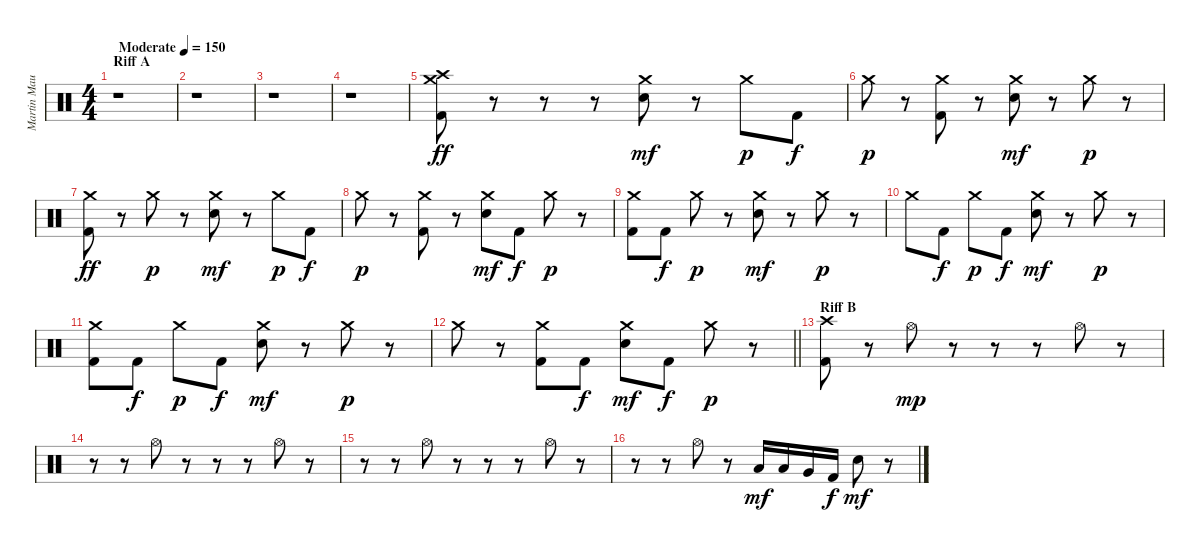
\track ("Martin Maurais" "Martin Mau") {instrument percussion}
\staff {score}
\articulation defaults
\ts (4 4)
\section ("" "Riff A")
\tempo (150 "Moderate")
\clef neutral
\ks c
r.1{dy ff} |
r.1 |
r.1 |
r.1 |
("Crash medium (hit)" "Crash high (hit)" "Kick (hit) 2").8 r.8 r.8 r.8 ("Crash medium (hit)" "Electric Snare (hit)").8{dy mf} r.8 "Crash medium (hit)".8{dy p} "Kick (hit) 2".8{dy f} |
"Crash medium (hit)".8{dy p} r.8 ("Crash medium (hit)" "Kick (hit) 2").8 r.8 ("Crash medium (hit)" "Electric Snare (hit)").8{dy mf} r.8 "Crash medium (hit)".8{dy p} r.8 |
("Crash medium (hit)" "Kick (hit) 2").8{dy ff} r.8 "Crash medium (hit)".8{dy p} r.8 ("Crash medium (hit)" "Electric Snare (hit)").8{dy mf} r.8 "Crash medium (hit)".8{dy p} "Kick (hit) 2".8{dy f} |
"Crash medium (hit)".8{dy p} r.8 ("Crash medium (hit)" "Kick (hit) 2").8 r.8 ("Crash medium (hit)" "Electric Snare (hit)").8{dy mf} "Kick (hit) 2".8{dy f} "Crash medium (hit)".8{dy p} r.8 |
("Crash medium (hit)" "Kick (hit) 2").8 "Kick (hit) 2".8{dy f} "Crash medium (hit)".8{dy p} r.8 ("Crash medium (hit)" "Electric Snare (hit)").8{dy mf} r.8 "Crash medium (hit)".8{dy p} r.8 |
"Crash medium (hit)".8 "Kick (hit) 2".8{dy f} "Crash medium (hit)".8{dy p} "Kick (hit) 2".8{dy f} ("Crash medium (hit)" "Electric Snare (hit)").8{dy mf} r.8 "Crash medium (hit)".8{dy p} r.8 |
("Crash medium (hit)" "Kick (hit) 2").8 "Kick (hit) 2".8{dy f} "Crash medium (hit)".8{dy p} "Kick (hit) 2".8{dy f} ("Crash medium (hit)" "Electric Snare (hit)").8{dy mf} r.8 "Crash medium (hit)".8{dy p} r.8 |
\barLineRight lightlight "Crash medium (hit)".8
r.8 ("Crash medium (hit)" "Kick (hit) 2").8 "Kick (hit) 2".8{dy f} ("Crash medium (hit)" "Electric Snare (hit)").8{dy mf} "Kick (hit) 2".8{dy f} "Crash medium (hit)".8{dy p} r.8 |
\section ("" "Riff B")
("Crash high (hit)" "Kick (hit) 2").8 r.8 "Hi-Hat (open)".8{dy mp} r.8 r.8 r.8 "Hi-Hat (open)".8 r.8 |
r.8 r.8 "Hi-Hat (open)".8 r.8 r.8 r.8 "Hi-Hat (open)".8 r.8 |
r.8 r.8 "Hi-Hat (open)".8 r.8 r.8 r.8 "Hi-Hat (open)".8 r.8 |
r.8 r.8 "Hi-Hat (open)".8 r.8 "Low Tom (hit)".16{dy mf} "Low Tom (hit)".16 "Very Low Tom (hit)".16 "Kick (hit) 2".16{dy f} "Electric Snare (hit)".8{dy mf} r.8
